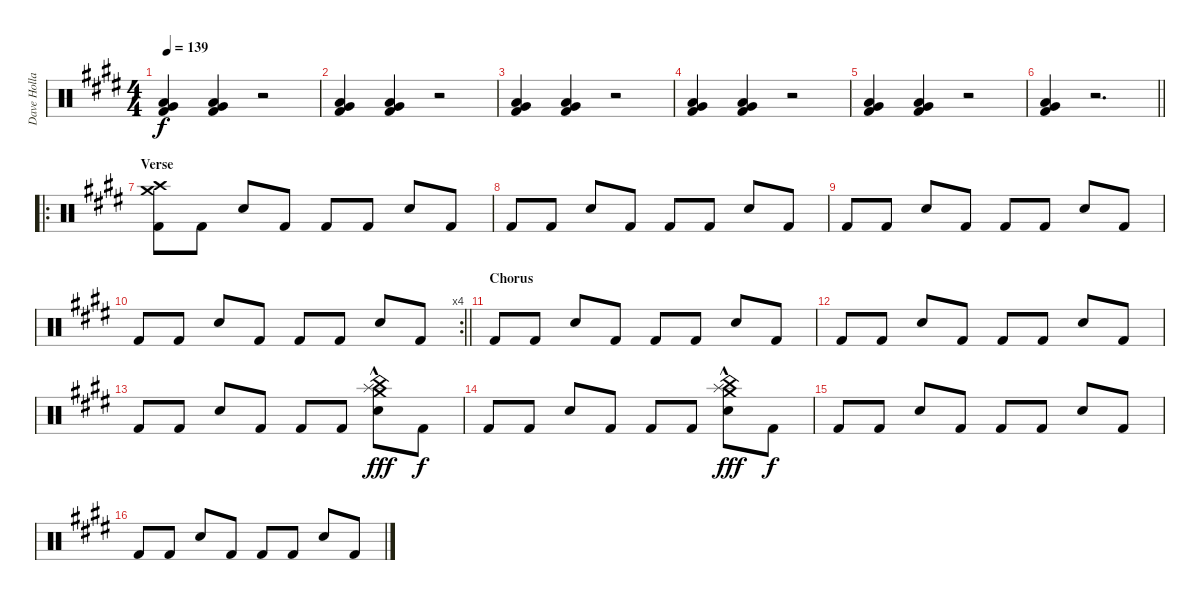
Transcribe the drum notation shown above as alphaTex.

\track ("Dave Holland" "Dave Holla") {instrument percussion}
\staff {score}
\articulation defaults
\ts (4 4)
\tempo 139
\clef neutral
\ks c#minor
("Low Floor Tom (hit)" "Very Low Tom (hit)" "Kick (hit) 2").4{dy f} ("Low Floor Tom (hit)" "Very Low Tom (hit)" "Kick (hit) 2").4 r.2 |
("Low Floor Tom (hit)" "Very Low Tom (hit)" "Kick (hit) 2").4 ("Low Floor Tom (hit)" "Very Low Tom (hit)" "Kick (hit) 2").4 r.2 |
("Low Floor Tom (hit)" "Very Low Tom (hit)" "Kick (hit) 2").4 ("Low Floor Tom (hit)" "Very Low Tom (hit)" "Kick (hit) 2").4 r.2 |
("Low Floor Tom (hit)" "Very Low Tom (hit)" "Kick (hit) 2").4 ("Low Floor Tom (hit)" "Very Low Tom (hit)" "Kick (hit) 2").4 r.2 |
("Low Floor Tom (hit)" "Very Low Tom (hit)" "Kick (hit) 2").4 ("Low Floor Tom (hit)" "Very Low Tom (hit)" "Kick (hit) 2").4 r.2 |
\barLineRight lightlight
("Low Floor Tom (hit)" "Very Low Tom (hit)" "Kick (hit) 2").4 r.2{d} |
\ro
\section ("" "Verse")
("Crash high (hit)" "Crash medium (hit)" "Kick (hit) 2").8 "Kick (hit) 2".8 "Snare (hit) 2".8 "Kick (hit) 2".8 "Kick (hit) 2".8 "Kick (hit) 2".8 "Snare (hit) 2".8 "Kick (hit) 2".8 |
"Kick (hit) 2".8 "Kick (hit) 2".8 "Snare (hit) 2".8 "Kick (hit) 2".8 "Kick (hit) 2".8 "Kick (hit) 2".8 "Snare (hit) 2".8 "Kick (hit) 2".8 |
"Kick (hit) 2".8 "Kick (hit) 2".8 "Snare (hit) 2".8 "Kick (hit) 2".8 "Kick (hit) 2".8 "Kick (hit) 2".8 "Snare (hit) 2".8 "Kick (hit) 2".8 |
\rc 4
\barLineRight lightlight "Kick (hit) 2".8 "Kick (hit) 2".8 "Snare (hit) 2".8 "Kick (hit) 2".8 "Kick (hit) 2".8 "Kick (hit) 2".8 "Snare (hit) 2".8 "Kick (hit) 2".8
|
\section ("" "Chorus")
"Kick (hit) 2".8 "Kick (hit) 2".8 "Snare (hit) 2".8 "Kick (hit) 2".8 "Kick (hit) 2".8 "Kick (hit) 2".8 "Snare (hit) 2".8 "Kick (hit) 2".8 |
"Kick (hit) 2".8 "Kick (hit) 2".8 "Snare (hit) 2".8 "Kick (hit) 2".8 "Kick (hit) 2".8 "Kick (hit) 2".8 "Snare (hit) 2".8 "Kick (hit) 2".8 |
"Kick (hit) 2".8 "Kick (hit) 2".8 "Snare (hit) 2".8 "Kick (hit) 2".8 "Kick (hit) 2".8 "Kick (hit) 2".8 ("Crash medium (hit)" "China (hit)" "Splash (hit)"{hac} "Snare (hit) 2").8{dy fff} "Kick (hit) 2".8{dy f} |
"Kick (hit) 2".8 "Kick (hit) 2".8 "Snare (hit) 2".8 "Kick (hit) 2".8 "Kick (hit) 2".8 "Kick (hit) 2".8 ("China (hit)" "Splash (hit)"{hac} "Crash medium (hit)" "Snare (hit) 2").8{dy fff} "Kick (hit) 2".8{dy f} |
"Kick (hit) 2".8 "Kick (hit) 2".8 "Snare (hit) 2".8 "Kick (hit) 2".8 "Kick (hit) 2".8 "Kick (hit) 2".8 "Snare (hit) 2".8 "Kick (hit) 2".8 |
"Kick (hit) 2".8 "Kick (hit) 2".8 "Snare (hit) 2".8 "Kick (hit) 2".8 "Kick (hit) 2".8 "Kick (hit) 2".8 "Snare (hit) 2".8 "Kick (hit) 2".8
